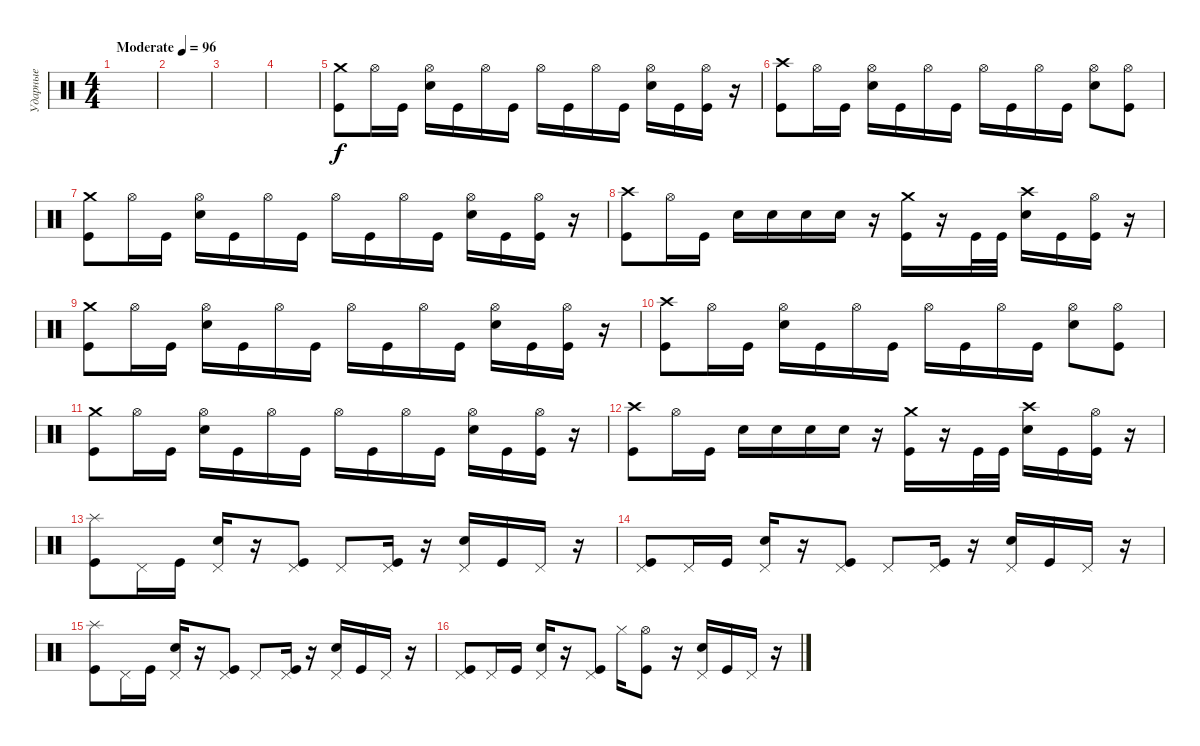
\track ("Ударные" "Ударные") {instrument percussion}
\staff {score}
\articulation defaults
\ts (4 4)
\tempo (96 "Moderate")
\clef neutral
\ks c
|
|
|
|
("Crash medium (hit)" "Kick (hit)").8 "Hi-Hat (open)".16 "Kick (hit)".16 ("Hi-Hat (open)" "Electric Snare (hit)").16 "Kick (hit)".16 "Hi-Hat (open)".16 "Kick (hit)".16 "Hi-Hat (open)".16 "Kick (hit)".16 "Hi-Hat (open)".16 "Kick (hit)".16 ("Hi-Hat (open)" "Electric Snare (hit)").16 "Kick (hit)".16 ("Hi-Hat (open)" "Kick (hit)").16 r.16 |
("Crash high (hit)" "Kick (hit)").8 "Hi-Hat (open)".16 "Kick (hit)".16 ("Hi-Hat (open)" "Electric Snare (hit)").16 "Kick (hit)".16 "Hi-Hat (open)".16 "Kick (hit)".16 "Hi-Hat (open)".16 "Kick (hit)".16 "Hi-Hat (open)".16 "Kick (hit)".16 ("Hi-Hat (open)" "Electric Snare (hit)").8 ("Hi-Hat (open)" "Kick (hit)").8 |
("Crash medium (hit)" "Kick (hit)").8 "Hi-Hat (open)".16 "Kick (hit)".16 ("Hi-Hat (open)" "Electric Snare (hit)").16 "Kick (hit)".16 "Hi-Hat (open)".16 "Kick (hit)".16 "Hi-Hat (open)".16 "Kick (hit)".16 "Hi-Hat (open)".16 "Kick (hit)".16 ("Hi-Hat (open)" "Electric Snare (hit)").16 "Kick (hit)".16 ("Hi-Hat (open)" "Kick (hit)").16 r.16 |
("Crash high (hit)" "Kick (hit)").8 "Hi-Hat (open)".16 "Kick (hit)".16 "Electric Snare (hit)".16 "Electric Snare (hit)".16 "Electric Snare (hit)".16 "Electric Snare (hit)".16 r.16 ("Crash medium (hit)" "Kick (hit)").16 r.16 "Kick (hit)".32 "Kick (hit)".32 ("Crash high (hit)" "Electric Snare (hit)").16 "Kick (hit)".16 ("Hi-Hat (open)" "Kick (hit)").16 r.16 |
("Crash medium (hit)" "Kick (hit)").8 "Hi-Hat (open)".16 "Kick (hit)".16 ("Hi-Hat (open)" "Electric Snare (hit)").16 "Kick (hit)".16 "Hi-Hat (open)".16 "Kick (hit)".16 "Hi-Hat (open)".16 "Kick (hit)".16 "Hi-Hat (open)".16 "Kick (hit)".16 ("Hi-Hat (open)" "Electric Snare (hit)").16 "Kick (hit)".16 ("Hi-Hat (open)" "Kick (hit)").16 r.16 |
("Crash high (hit)" "Kick (hit)").8 "Hi-Hat (open)".16 "Kick (hit)".16 ("Hi-Hat (open)" "Electric Snare (hit)").16 "Kick (hit)".16 "Hi-Hat (open)".16 "Kick (hit)".16 "Hi-Hat (open)".16 "Kick (hit)".16 "Hi-Hat (open)".16 "Kick (hit)".16 ("Hi-Hat (open)" "Electric Snare (hit)").8 ("Hi-Hat (open)" "Kick (hit)").8 |
("Crash medium (hit)" "Kick (hit)").8 "Hi-Hat (open)".16 "Kick (hit)".16 ("Hi-Hat (open)" "Electric Snare (hit)").16 "Kick (hit)".16 "Hi-Hat (open)".16 "Kick (hit)".16 "Hi-Hat (open)".16 "Kick (hit)".16 "Hi-Hat (open)".16 "Kick (hit)".16 ("Hi-Hat (open)" "Electric Snare (hit)").16 "Kick (hit)".16 ("Hi-Hat (open)" "Kick (hit)").16 r.16 |
("Crash high (hit)" "Kick (hit)").8 "Hi-Hat (open)".16 "Kick (hit)".16 "Electric Snare (hit)".16 "Electric Snare (hit)".16 "Electric Snare (hit)".16 "Electric Snare (hit)".16 r.16 ("Crash medium (hit)" "Kick (hit)").16 r.16 "Kick (hit)".32 "Kick (hit)".32 ("Crash high (hit)" "Electric Snare (hit)").16 "Kick (hit)".16 ("Hi-Hat (open)" "Kick (hit)").16 r.16 |
("Splash (hit)" "Kick (hit)").8 "Pedal Hi-Hat (hit)".16 "Kick (hit)".16 ("Pedal Hi-Hat (hit)" "Electric Snare (hit)").16 r.16 ("Pedal Hi-Hat (hit)" "Kick (hit)").8 "Pedal Hi-Hat (hit)".8 ("Pedal Hi-Hat (hit)" "Kick (hit)").16 r.16 ("Pedal Hi-Hat (hit)" "Electric Snare (hit)").16 "Kick (hit)".16 "Pedal Hi-Hat (hit)".16 r.16 |
("Pedal Hi-Hat (hit)" "Kick (hit)").8 "Pedal Hi-Hat (hit)".16 "Kick (hit)".16 ("Pedal Hi-Hat (hit)" "Electric Snare (hit)").16 r.16 ("Pedal Hi-Hat (hit)" "Kick (hit)").8 "Pedal Hi-Hat (hit)".8 ("Pedal Hi-Hat (hit)" "Kick (hit)").16 r.16 ("Pedal Hi-Hat (hit)" "Electric Snare (hit)").16 "Kick (hit)".16 "Pedal Hi-Hat (hit)".16 r.16 |
("Splash (hit)" "Kick (hit)").8 "Pedal Hi-Hat (hit)".16 "Kick (hit)".16 ("Pedal Hi-Hat (hit)" "Electric Snare (hit)").16 r.16 ("Pedal Hi-Hat (hit)" "Kick (hit)").8 "Pedal Hi-Hat (hit)".8 ("Pedal Hi-Hat (hit)" "Kick (hit)").16 r.16 ("Pedal Hi-Hat (hit)" "Electric Snare (hit)").16 "Kick (hit)".16 "Pedal Hi-Hat (hit)".16 r.16 |
("Pedal Hi-Hat (hit)" "Kick (hit)").8 "Pedal Hi-Hat (hit)".16 "Kick (hit)".16 ("Pedal Hi-Hat (hit)" "Electric Snare (hit)").16 r.16 ("Pedal Hi-Hat (hit)" "Kick (hit)").8 "Hi-Hat (closed)".16 ("Hi-Hat (open)" "Kick (hit)").8 r.16 ("Pedal Hi-Hat (hit)" "Electric Snare (hit)").16 "Kick (hit)".16 "Pedal Hi-Hat (hit)".16 r.16
